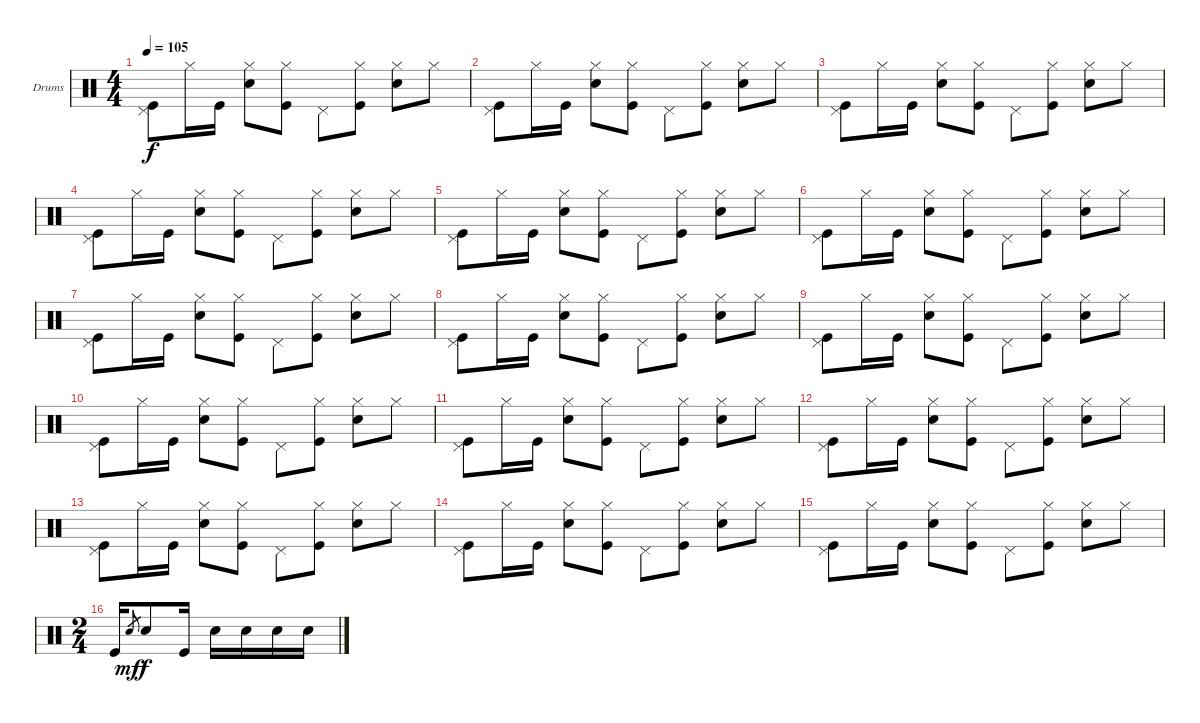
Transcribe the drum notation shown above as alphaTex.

\defaultSystemsLayout 4
\bracketExtendMode nobrackets
\firstSystemTrackNameOrientation horizontal
\otherSystemsTrackNameOrientation horizontal
\track ("Dave Krusen" "Drums") {instrument percussion}
\staff {score}
\articulation defaults
\ts (4 4)
\tempo 105
\clef neutral
\ks c
("Kick (hit)" "Pedal Hi-Hat (hit)").8{dy f} "Hi-Hat (closed)".16 "Kick (hit)".16 ("Snare (hit) 2" "Hi-Hat (closed)").8 ("Kick (hit)" "Hi-Hat (closed)").8 "Pedal Hi-Hat (hit)".8 ("Kick (hit)" "Hi-Hat (closed)").8 ("Snare (hit) 2" "Hi-Hat (closed)").8 "Hi-Hat (closed)".8 |
("Kick (hit)" "Pedal Hi-Hat (hit)").8 "Hi-Hat (closed)".16 "Kick (hit)".16 ("Snare (hit) 2" "Hi-Hat (closed)").8 ("Kick (hit)" "Hi-Hat (closed)").8 "Pedal Hi-Hat (hit)".8 ("Kick (hit)" "Hi-Hat (closed)").8 ("Snare (hit) 2" "Hi-Hat (closed)").8 "Hi-Hat (closed)".8 |
("Kick (hit)" "Pedal Hi-Hat (hit)").8 "Hi-Hat (closed)".16 "Kick (hit)".16 ("Snare (hit) 2" "Hi-Hat (closed)").8 ("Kick (hit)" "Hi-Hat (closed)").8 "Pedal Hi-Hat (hit)".8 ("Kick (hit)" "Hi-Hat (closed)").8 ("Snare (hit) 2" "Hi-Hat (closed)").8 "Hi-Hat (closed)".8 |
("Kick (hit)" "Pedal Hi-Hat (hit)").8 "Hi-Hat (closed)".16 "Kick (hit)".16 ("Snare (hit) 2" "Hi-Hat (closed)").8 ("Kick (hit)" "Hi-Hat (closed)").8 "Pedal Hi-Hat (hit)".8 ("Kick (hit)" "Hi-Hat (closed)").8 ("Snare (hit) 2" "Hi-Hat (closed)").8 "Hi-Hat (closed)".8 |
("Kick (hit)" "Pedal Hi-Hat (hit)").8 "Hi-Hat (closed)".16 "Kick (hit)".16 ("Snare (hit) 2" "Hi-Hat (closed)").8 ("Kick (hit)" "Hi-Hat (closed)").8 "Pedal Hi-Hat (hit)".8 ("Kick (hit)" "Hi-Hat (closed)").8 ("Snare (hit) 2" "Hi-Hat (closed)").8 "Hi-Hat (closed)".8 |
("Kick (hit)" "Pedal Hi-Hat (hit)").8 "Hi-Hat (closed)".16 "Kick (hit)".16 ("Snare (hit) 2" "Hi-Hat (closed)").8 ("Kick (hit)" "Hi-Hat (closed)").8 "Pedal Hi-Hat (hit)".8 ("Kick (hit)" "Hi-Hat (closed)").8 ("Snare (hit) 2" "Hi-Hat (closed)").8 "Hi-Hat (closed)".8 |
("Kick (hit)" "Pedal Hi-Hat (hit)").8 "Hi-Hat (closed)".16 "Kick (hit)".16 ("Snare (hit) 2" "Hi-Hat (closed)").8 ("Kick (hit)" "Hi-Hat (closed)").8 "Pedal Hi-Hat (hit)".8 ("Kick (hit)" "Hi-Hat (closed)").8 ("Snare (hit) 2" "Hi-Hat (closed)").8 "Hi-Hat (closed)".8 |
("Kick (hit)" "Pedal Hi-Hat (hit)").8 "Hi-Hat (closed)".16 "Kick (hit)".16 ("Snare (hit) 2" "Hi-Hat (closed)").8 ("Kick (hit)" "Hi-Hat (closed)").8 "Pedal Hi-Hat (hit)".8 ("Kick (hit)" "Hi-Hat (closed)").8 ("Snare (hit) 2" "Hi-Hat (closed)").8 "Hi-Hat (closed)".8 |
("Kick (hit)" "Pedal Hi-Hat (hit)").8 "Hi-Hat (closed)".16 "Kick (hit)".16 ("Snare (hit) 2" "Hi-Hat (closed)").8 ("Kick (hit)" "Hi-Hat (closed)").8 "Pedal Hi-Hat (hit)".8 ("Kick (hit)" "Hi-Hat (closed)").8 ("Snare (hit) 2" "Hi-Hat (closed)").8 "Hi-Hat (closed)".8 |
("Kick (hit)" "Pedal Hi-Hat (hit)").8 "Hi-Hat (closed)".16 "Kick (hit)".16 ("Snare (hit) 2" "Hi-Hat (closed)").8 ("Kick (hit)" "Hi-Hat (closed)").8 "Pedal Hi-Hat (hit)".8 ("Kick (hit)" "Hi-Hat (closed)").8 ("Snare (hit) 2" "Hi-Hat (closed)").8 "Hi-Hat (closed)".8 |
("Kick (hit)" "Pedal Hi-Hat (hit)").8 "Hi-Hat (closed)".16 "Kick (hit)".16 ("Snare (hit) 2" "Hi-Hat (closed)").8 ("Kick (hit)" "Hi-Hat (closed)").8 "Pedal Hi-Hat (hit)".8 ("Kick (hit)" "Hi-Hat (closed)").8 ("Snare (hit) 2" "Hi-Hat (closed)").8 "Hi-Hat (closed)".8 |
("Kick (hit)" "Pedal Hi-Hat (hit)").8 "Hi-Hat (closed)".16 "Kick (hit)".16 ("Snare (hit) 2" "Hi-Hat (closed)").8 ("Kick (hit)" "Hi-Hat (closed)").8 "Pedal Hi-Hat (hit)".8 ("Kick (hit)" "Hi-Hat (closed)").8 ("Snare (hit) 2" "Hi-Hat (closed)").8 "Hi-Hat (closed)".8 |
("Kick (hit)" "Pedal Hi-Hat (hit)").8 "Hi-Hat (closed)".16 "Kick (hit)".16 ("Snare (hit) 2" "Hi-Hat (closed)").8 ("Kick (hit)" "Hi-Hat (closed)").8 "Pedal Hi-Hat (hit)".8 ("Kick (hit)" "Hi-Hat (closed)").8 ("Snare (hit) 2" "Hi-Hat (closed)").8 "Hi-Hat (closed)".8 |
("Kick (hit)" "Pedal Hi-Hat (hit)").8 "Hi-Hat (closed)".16 "Kick (hit)".16 ("Snare (hit) 2" "Hi-Hat (closed)").8 ("Kick (hit)" "Hi-Hat (closed)").8 "Pedal Hi-Hat (hit)".8 ("Kick (hit)" "Hi-Hat (closed)").8 ("Snare (hit) 2" "Hi-Hat (closed)").8 "Hi-Hat (closed)".8 |
("Kick (hit)" "Pedal Hi-Hat (hit)").8 "Hi-Hat (closed)".16 "Kick (hit)".16 ("Snare (hit) 2" "Hi-Hat (closed)").8 ("Kick (hit)" "Hi-Hat (closed)").8 "Pedal Hi-Hat (hit)".8 ("Kick (hit)" "Hi-Hat (closed)").8 ("Snare (hit) 2" "Hi-Hat (closed)").8 "Hi-Hat (closed)".8 |
\ts (2 4)
"Kick (hit)".16 "Snare (hit) 2".8{gr dy mf} "Snare (hit) 2".8{dy f} "Kick (hit)".16 "Snare (hit) 2".16 "Snare (hit) 2".16 "Snare (hit) 2".16 "Snare (hit) 2".16
